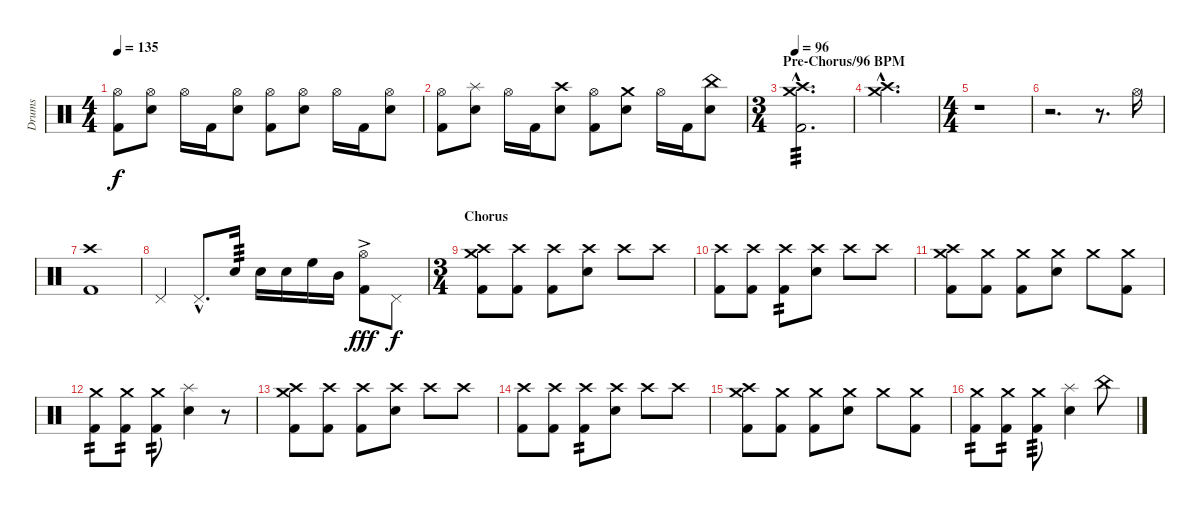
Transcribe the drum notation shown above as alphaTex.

\track ("Drums" "Drums") {instrument percussion}
\staff {score}
\articulation defaults
\ts (4 4)
\tempo 135
\clef neutral
\ks c
("Hi-Hat (open)" "Kick (hit) 2").8{dy f} ("Hi-Hat (open)" "Snare (hit) 2").8 "Hi-Hat (open)".16 "Kick (hit) 2".16 ("Hi-Hat (open)" "Snare (hit) 2").8 ("Hi-Hat (open)" "Kick (hit) 2").8 ("Hi-Hat (open)" "Snare (hit) 2").8 "Hi-Hat (open)".16 "Kick (hit) 2".16 ("Hi-Hat (open)" "Snare (hit) 2").8 |
("Hi-Hat (open)" "Kick (hit) 2").8 ("Splash (hit)" "Snare (hit) 2").8 "Hi-Hat (open)".16 "Kick (hit) 2".16 ("Crash high (hit)" "Snare (hit) 2").8 ("Hi-Hat (open)" "Kick (hit) 2").8 ("Crash medium (hit)" "Snare (hit) 2").8 "Hi-Hat (open)".16 "Kick (hit) 2".16 ("China (hit)" "Snare (hit) 2").8 |
\ts (3 4)
\section ("" "Pre-Chorus/96 BPM")
\tempo 96
("Crash high (hit)"{hac} "Crash medium (hit)"{hac} "Kick (hit) 2"{hac}).2{d tp 3 volume 9} |
("Crash high (hit)"{hac} "Crash medium (hit)"{hac}).2{d} |
\ts (4 4)
r.1 |
r.2{d} r.8{d} "Hi-Hat (open)".16 |
("Crash high (hit)" "Kick (hit) 2").1 |
"Pedal Hi-Hat (hit)".4 "Pedal Hi-Hat (hit)"{hac}.8{d} "Snare (hit) 2".16{tp 3} "Snare (hit) 2".16 "Snare (hit) 2".16 "High Floor Tom (hit)".16 "Mid Tom (hit)".16 ("Hi-Hat (open)"{ac} "Kick (hit) 2").8{dy fff} "Pedal Hi-Hat (hit)".8{dy f} |
\ts (3 4)
\section ("" "Chorus")
("Crash high (hit)" "Crash medium (hit)" "Kick (hit) 2").8 ("Crash high (hit)" "Kick (hit) 2").8 ("Crash high (hit)" "Kick (hit) 2").8 ("Crash high (hit)" "Snare (hit) 2").8 "Crash high (hit)".8 "Crash high (hit)".8 |
("Crash high (hit)" "Kick (hit) 2").8 ("Crash high (hit)" "Kick (hit) 2").8 ("Crash high (hit)" "Kick (hit) 2").8{tp 2} ("Crash high (hit)" "Snare (hit) 2").8 "Crash high (hit)".8 "Crash high (hit)".8 |
("Crash medium (hit)" "Crash high (hit)" "Kick (hit) 2").8 ("Crash medium (hit)" "Kick (hit) 2").8 ("Crash medium (hit)" "Kick (hit) 2").8 ("Crash medium (hit)" "Snare (hit) 2").8 "Crash medium (hit)".8 ("Crash medium (hit)" "Kick (hit) 2").8 |
("Crash medium (hit)" "Kick (hit) 2").8{tp 2} ("Crash medium (hit)" "Kick (hit) 2").8{tp 2} ("Crash medium (hit)" "Kick (hit) 2").8{tp 2} ("Splash (hit)" "Snare (hit) 2").4 r.8 |
("Crash high (hit)" "Crash medium (hit)" "Kick (hit) 2").8 ("Crash high (hit)" "Kick (hit) 2").8 ("Crash high (hit)" "Kick (hit) 2").8 ("Crash high (hit)" "Snare (hit) 2").8 "Crash high (hit)".8 "Crash high (hit)".8 |
("Crash high (hit)" "Kick (hit) 2").8 ("Crash high (hit)" "Kick (hit) 2").8 ("Crash high (hit)" "Kick (hit) 2").8{tp 2} ("Crash high (hit)" "Snare (hit) 2").8 "Crash high (hit)".8 "Crash high (hit)".8 |
("Crash medium (hit)" "Crash high (hit)" "Kick (hit) 2").8 ("Crash medium (hit)" "Kick (hit) 2").8 ("Crash medium (hit)" "Kick (hit) 2").8 ("Crash medium (hit)" "Snare (hit) 2").8 "Crash medium (hit)".8 ("Crash medium (hit)" "Kick (hit) 2").8 |
("Crash medium (hit)" "Kick (hit) 2").8{tp 2} ("Crash medium (hit)" "Kick (hit) 2").8{tp 2} ("Crash medium (hit)" "Kick (hit) 2").8{tp 3} ("Splash (hit)" "Snare (hit) 2").4 "China (hit)".8
